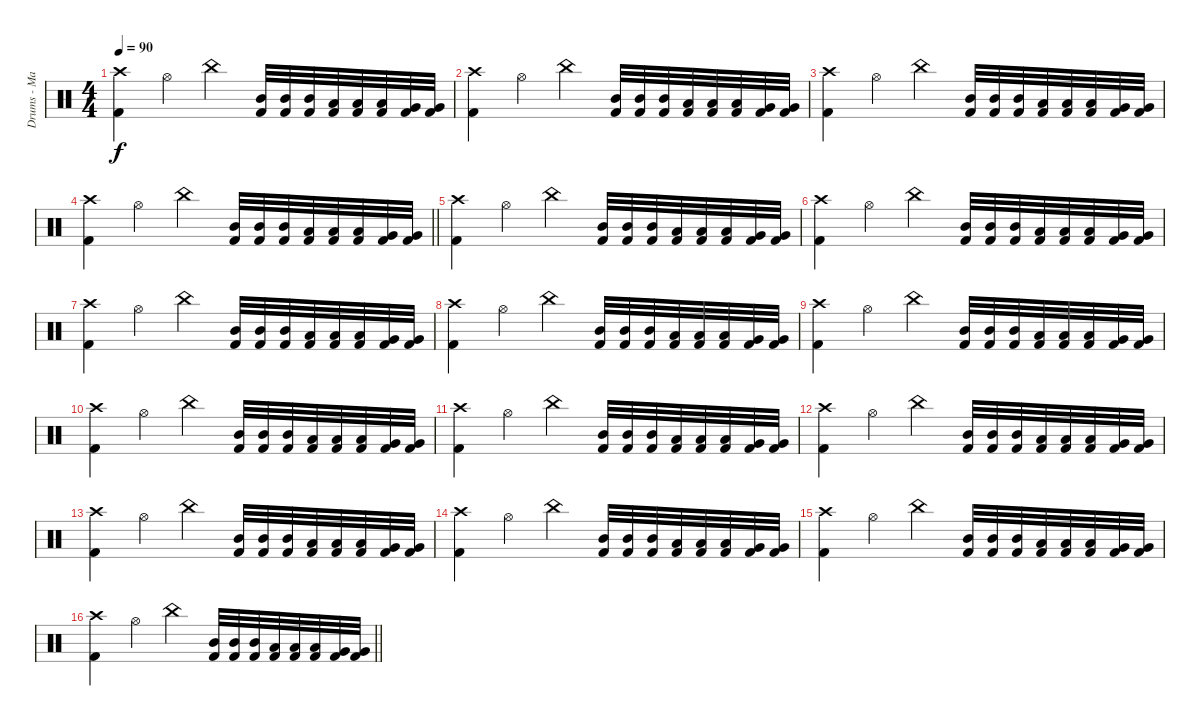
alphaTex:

\track ("Drums - Mario Duplantier" "Drums - Ma") {instrument percussion}
\staff {score}
\articulation defaults
\ts (4 4)
\tempo 90
\clef neutral
\ks c
("Crash high (hit)" "Kick (hit) 2").4{dy f} "Hi-Hat (open)".4 "China (hit)".4 ("Mid Tom (hit)" "Kick (hit) 2").32 ("Mid Tom (hit)" "Kick (hit) 2").32 ("Mid Tom (hit)" "Kick (hit) 2").32 ("Low Tom (hit)" "Kick (hit) 2").32 ("Low Tom (hit)" "Kick (hit) 2").32 ("Low Tom (hit)" "Kick (hit) 2").32 ("Very Low Tom (hit)" "Kick (hit) 2").32 ("Very Low Tom (hit)" "Kick (hit) 2").32 |
("Crash high (hit)" "Kick (hit) 2").4 "Hi-Hat (open)".4 "China (hit)".4 ("Mid Tom (hit)" "Kick (hit) 2").32 ("Mid Tom (hit)" "Kick (hit) 2").32 ("Mid Tom (hit)" "Kick (hit) 2").32 ("Low Tom (hit)" "Kick (hit) 2").32 ("Low Tom (hit)" "Kick (hit) 2").32 ("Low Tom (hit)" "Kick (hit) 2").32 ("Very Low Tom (hit)" "Kick (hit) 2").32 ("Very Low Tom (hit)" "Kick (hit) 2").32 |
("Crash high (hit)" "Kick (hit) 2").4 "Hi-Hat (open)".4 "China (hit)".4 ("Mid Tom (hit)" "Kick (hit) 2").32 ("Mid Tom (hit)" "Kick (hit) 2").32 ("Mid Tom (hit)" "Kick (hit) 2").32 ("Low Tom (hit)" "Kick (hit) 2").32 ("Low Tom (hit)" "Kick (hit) 2").32 ("Low Tom (hit)" "Kick (hit) 2").32 ("Very Low Tom (hit)" "Kick (hit) 2").32 ("Very Low Tom (hit)" "Kick (hit) 2").32 |
\barLineRight lightlight
("Crash high (hit)" "Kick (hit) 2").4 "Hi-Hat (open)".4 "China (hit)".4 ("Mid Tom (hit)" "Kick (hit) 2").32 ("Mid Tom (hit)" "Kick (hit) 2").32 ("Mid Tom (hit)" "Kick (hit) 2").32 ("Low Tom (hit)" "Kick (hit) 2").32 ("Low Tom (hit)" "Kick (hit) 2").32 ("Low Tom (hit)" "Kick (hit) 2").32 ("Very Low Tom (hit)" "Kick (hit) 2").32 ("Very Low Tom (hit)" "Kick (hit) 2").32 |
("Crash high (hit)" "Kick (hit) 2").4 "Hi-Hat (open)".4 "China (hit)".4 ("Mid Tom (hit)" "Kick (hit) 2").32 ("Mid Tom (hit)" "Kick (hit) 2").32 ("Mid Tom (hit)" "Kick (hit) 2").32 ("Low Tom (hit)" "Kick (hit) 2").32 ("Low Tom (hit)" "Kick (hit) 2").32 ("Low Tom (hit)" "Kick (hit) 2").32 ("Very Low Tom (hit)" "Kick (hit) 2").32 ("Very Low Tom (hit)" "Kick (hit) 2").32 |
("Crash high (hit)" "Kick (hit) 2").4 "Hi-Hat (open)".4 "China (hit)".4 ("Mid Tom (hit)" "Kick (hit) 2").32 ("Mid Tom (hit)" "Kick (hit) 2").32 ("Mid Tom (hit)" "Kick (hit) 2").32 ("Low Tom (hit)" "Kick (hit) 2").32 ("Low Tom (hit)" "Kick (hit) 2").32 ("Low Tom (hit)" "Kick (hit) 2").32 ("Very Low Tom (hit)" "Kick (hit) 2").32 ("Very Low Tom (hit)" "Kick (hit) 2").32 |
("Crash high (hit)" "Kick (hit) 2").4 "Hi-Hat (open)".4 "China (hit)".4 ("Mid Tom (hit)" "Kick (hit) 2").32 ("Mid Tom (hit)" "Kick (hit) 2").32 ("Mid Tom (hit)" "Kick (hit) 2").32 ("Low Tom (hit)" "Kick (hit) 2").32 ("Low Tom (hit)" "Kick (hit) 2").32 ("Low Tom (hit)" "Kick (hit) 2").32 ("Very Low Tom (hit)" "Kick (hit) 2").32 ("Very Low Tom (hit)" "Kick (hit) 2").32 |
("Crash high (hit)" "Kick (hit) 2").4 "Hi-Hat (open)".4 "China (hit)".4 ("Mid Tom (hit)" "Kick (hit) 2").32 ("Mid Tom (hit)" "Kick (hit) 2").32 ("Mid Tom (hit)" "Kick (hit) 2").32 ("Low Tom (hit)" "Kick (hit) 2").32 ("Low Tom (hit)" "Kick (hit) 2").32 ("Low Tom (hit)" "Kick (hit) 2").32 ("Very Low Tom (hit)" "Kick (hit) 2").32 ("Very Low Tom (hit)" "Kick (hit) 2").32 |
("Crash high (hit)" "Kick (hit) 2").4 "Hi-Hat (open)".4 "China (hit)".4 ("Mid Tom (hit)" "Kick (hit) 2").32 ("Mid Tom (hit)" "Kick (hit) 2").32 ("Mid Tom (hit)" "Kick (hit) 2").32 ("Low Tom (hit)" "Kick (hit) 2").32 ("Low Tom (hit)" "Kick (hit) 2").32 ("Low Tom (hit)" "Kick (hit) 2").32 ("Very Low Tom (hit)" "Kick (hit) 2").32 ("Very Low Tom (hit)" "Kick (hit) 2").32 |
("Crash high (hit)" "Kick (hit) 2").4 "Hi-Hat (open)".4 "China (hit)".4 ("Mid Tom (hit)" "Kick (hit) 2").32 ("Mid Tom (hit)" "Kick (hit) 2").32 ("Mid Tom (hit)" "Kick (hit) 2").32 ("Low Tom (hit)" "Kick (hit) 2").32 ("Low Tom (hit)" "Kick (hit) 2").32 ("Low Tom (hit)" "Kick (hit) 2").32 ("Very Low Tom (hit)" "Kick (hit) 2").32 ("Very Low Tom (hit)" "Kick (hit) 2").32 |
("Crash high (hit)" "Kick (hit) 2").4 "Hi-Hat (open)".4 "China (hit)".4 ("Mid Tom (hit)" "Kick (hit) 2").32 ("Mid Tom (hit)" "Kick (hit) 2").32 ("Mid Tom (hit)" "Kick (hit) 2").32 ("Low Tom (hit)" "Kick (hit) 2").32 ("Low Tom (hit)" "Kick (hit) 2").32 ("Low Tom (hit)" "Kick (hit) 2").32 ("Very Low Tom (hit)" "Kick (hit) 2").32 ("Very Low Tom (hit)" "Kick (hit) 2").32 |
("Crash high (hit)" "Kick (hit) 2").4 "Hi-Hat (open)".4 "China (hit)".4 ("Mid Tom (hit)" "Kick (hit) 2").32 ("Mid Tom (hit)" "Kick (hit) 2").32 ("Mid Tom (hit)" "Kick (hit) 2").32 ("Low Tom (hit)" "Kick (hit) 2").32 ("Low Tom (hit)" "Kick (hit) 2").32 ("Low Tom (hit)" "Kick (hit) 2").32 ("Very Low Tom (hit)" "Kick (hit) 2").32 ("Very Low Tom (hit)" "Kick (hit) 2").32 |
("Crash high (hit)" "Kick (hit) 2").4 "Hi-Hat (open)".4 "China (hit)".4 ("Mid Tom (hit)" "Kick (hit) 2").32 ("Mid Tom (hit)" "Kick (hit) 2").32 ("Mid Tom (hit)" "Kick (hit) 2").32 ("Low Tom (hit)" "Kick (hit) 2").32 ("Low Tom (hit)" "Kick (hit) 2").32 ("Low Tom (hit)" "Kick (hit) 2").32 ("Very Low Tom (hit)" "Kick (hit) 2").32 ("Very Low Tom (hit)" "Kick (hit) 2").32 |
("Crash high (hit)" "Kick (hit) 2").4 "Hi-Hat (open)".4 "China (hit)".4 ("Mid Tom (hit)" "Kick (hit) 2").32 ("Mid Tom (hit)" "Kick (hit) 2").32 ("Mid Tom (hit)" "Kick (hit) 2").32 ("Low Tom (hit)" "Kick (hit) 2").32 ("Low Tom (hit)" "Kick (hit) 2").32 ("Low Tom (hit)" "Kick (hit) 2").32 ("Very Low Tom (hit)" "Kick (hit) 2").32 ("Very Low Tom (hit)" "Kick (hit) 2").32 |
("Crash high (hit)" "Kick (hit) 2").4 "Hi-Hat (open)".4 "China (hit)".4 ("Mid Tom (hit)" "Kick (hit) 2").32 ("Mid Tom (hit)" "Kick (hit) 2").32 ("Mid Tom (hit)" "Kick (hit) 2").32 ("Low Tom (hit)" "Kick (hit) 2").32 ("Low Tom (hit)" "Kick (hit) 2").32 ("Low Tom (hit)" "Kick (hit) 2").32 ("Very Low Tom (hit)" "Kick (hit) 2").32 ("Very Low Tom (hit)" "Kick (hit) 2").32 |
\barLineRight lightlight
("Crash high (hit)" "Kick (hit) 2").4 "Hi-Hat (open)".4 "China (hit)".4 ("Mid Tom (hit)" "Kick (hit) 2").32 ("Mid Tom (hit)" "Kick (hit) 2").32 ("Mid Tom (hit)" "Kick (hit) 2").32 ("Low Tom (hit)" "Kick (hit) 2").32 ("Low Tom (hit)" "Kick (hit) 2").32 ("Low Tom (hit)" "Kick (hit) 2").32 ("Very Low Tom (hit)" "Kick (hit) 2").32 ("Very Low Tom (hit)" "Kick (hit) 2").32
